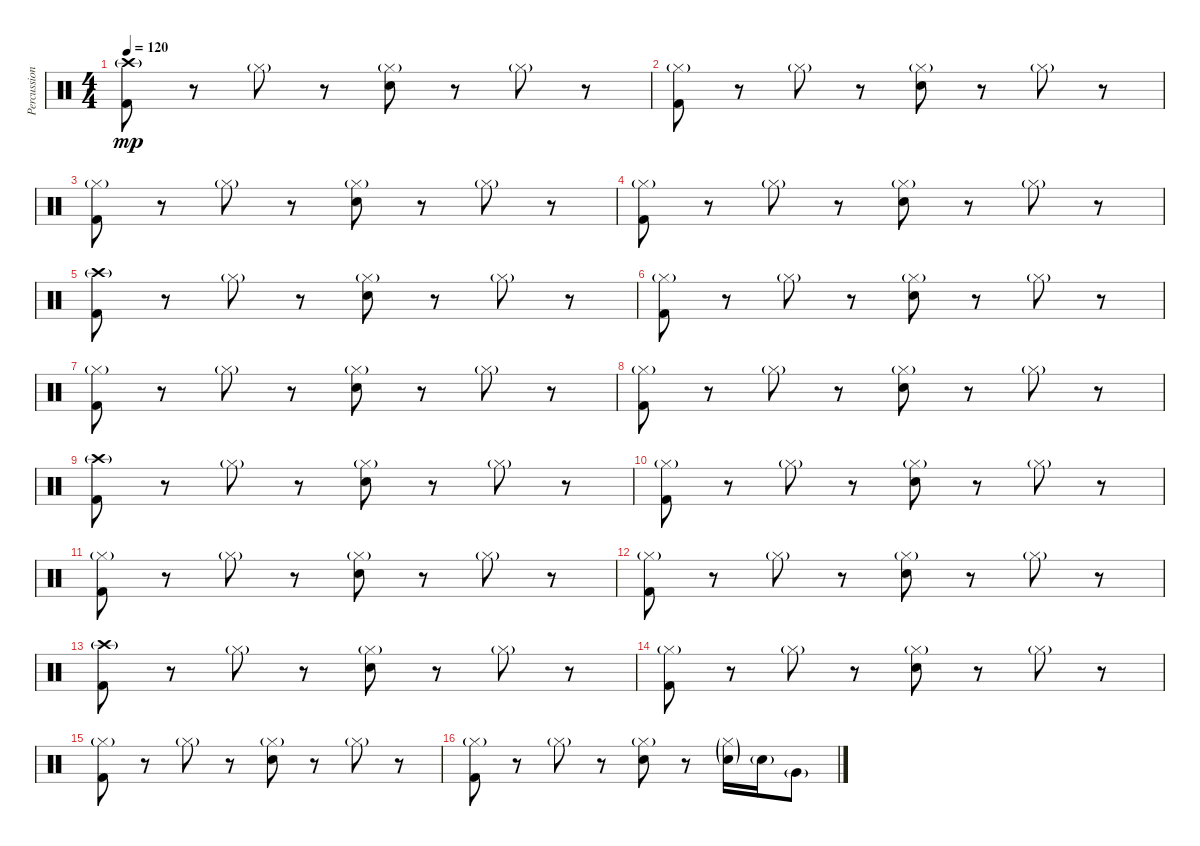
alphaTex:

\track ("Percussion" "Percussion") {instrument percussion}
\staff {score}
\articulation defaults
\ts (4 4)
\tempo 120
\clef neutral
\ks c
("Crash high (hit)"{g} "Kick (hit) 2").8{dy mp} r.8 "Hi-Hat (closed)"{g}.8 r.8 ("Hi-Hat (closed)"{g} "Electric Snare (hit)").8 r.8 "Hi-Hat (closed)"{g}.8 r.8 |
("Hi-Hat (closed)"{g} "Kick (hit) 2").8 r.8 "Hi-Hat (closed)"{g}.8 r.8 ("Hi-Hat (closed)"{g} "Electric Snare (hit)").8 r.8 "Hi-Hat (closed)"{g}.8 r.8 |
("Hi-Hat (closed)"{g} "Kick (hit) 2").8 r.8 "Hi-Hat (closed)"{g}.8 r.8 ("Hi-Hat (closed)"{g} "Electric Snare (hit)").8 r.8 "Hi-Hat (closed)"{g}.8 r.8 |
("Hi-Hat (closed)"{g} "Kick (hit) 2").8 r.8 "Hi-Hat (closed)"{g}.8 r.8 ("Hi-Hat (closed)"{g} "Electric Snare (hit)").8 r.8 "Hi-Hat (closed)"{g}.8 r.8 |
("Crash high (hit)"{g} "Kick (hit) 2").8 r.8 "Hi-Hat (closed)"{g}.8 r.8 ("Hi-Hat (closed)"{g} "Electric Snare (hit)").8 r.8 "Hi-Hat (closed)"{g}.8 r.8 |
("Hi-Hat (closed)"{g} "Kick (hit) 2").8 r.8 "Hi-Hat (closed)"{g}.8 r.8 ("Hi-Hat (closed)"{g} "Electric Snare (hit)").8 r.8 "Hi-Hat (closed)"{g}.8 r.8 |
("Hi-Hat (closed)"{g} "Kick (hit) 2").8 r.8 "Hi-Hat (closed)"{g}.8 r.8 ("Hi-Hat (closed)"{g} "Electric Snare (hit)").8 r.8 "Hi-Hat (closed)"{g}.8 r.8 |
("Hi-Hat (closed)"{g} "Kick (hit) 2").8 r.8 "Hi-Hat (closed)"{g}.8 r.8 ("Hi-Hat (closed)"{g} "Electric Snare (hit)").8 r.8 "Hi-Hat (closed)"{g}.8 r.8 |
("Crash high (hit)"{g} "Kick (hit) 2").8 r.8 "Hi-Hat (closed)"{g}.8 r.8 ("Hi-Hat (closed)"{g} "Electric Snare (hit)").8 r.8 "Hi-Hat (closed)"{g}.8 r.8 |
("Hi-Hat (closed)"{g} "Kick (hit) 2").8 r.8 "Hi-Hat (closed)"{g}.8 r.8 ("Hi-Hat (closed)"{g} "Electric Snare (hit)").8 r.8 "Hi-Hat (closed)"{g}.8 r.8 |
("Hi-Hat (closed)"{g} "Kick (hit) 2").8 r.8 "Hi-Hat (closed)"{g}.8 r.8 ("Hi-Hat (closed)"{g} "Electric Snare (hit)").8 r.8 "Hi-Hat (closed)"{g}.8 r.8 |
("Hi-Hat (closed)"{g} "Kick (hit) 2").8 r.8 "Hi-Hat (closed)"{g}.8 r.8 ("Hi-Hat (closed)"{g} "Electric Snare (hit)").8 r.8 "Hi-Hat (closed)"{g}.8 r.8 |
("Crash high (hit)"{g} "Kick (hit) 2").8 r.8 "Hi-Hat (closed)"{g}.8 r.8 ("Hi-Hat (closed)"{g} "Electric Snare (hit)").8 r.8 "Hi-Hat (closed)"{g}.8 r.8 |
("Hi-Hat (closed)"{g} "Kick (hit) 2").8 r.8 "Hi-Hat (closed)"{g}.8 r.8 ("Hi-Hat (closed)"{g} "Electric Snare (hit)").8 r.8 "Hi-Hat (closed)"{g}.8 r.8 |
("Hi-Hat (closed)"{g} "Kick (hit) 2").8 r.8 "Hi-Hat (closed)"{g}.8 r.8 ("Hi-Hat (closed)"{g} "Electric Snare (hit)").8 r.8 "Hi-Hat (closed)"{g}.8 r.8 |
("Hi-Hat (closed)"{g} "Kick (hit) 2").8 r.8 "Hi-Hat (closed)"{g}.8 r.8 ("Hi-Hat (closed)"{g} "Electric Snare (hit)").8 r.8 ("Hi-Hat (closed)"{g} "Electric Snare (hit)"{g}).16 "Electric Snare (hit)"{g}.16 "Very Low Tom (hit)"{g}.8
